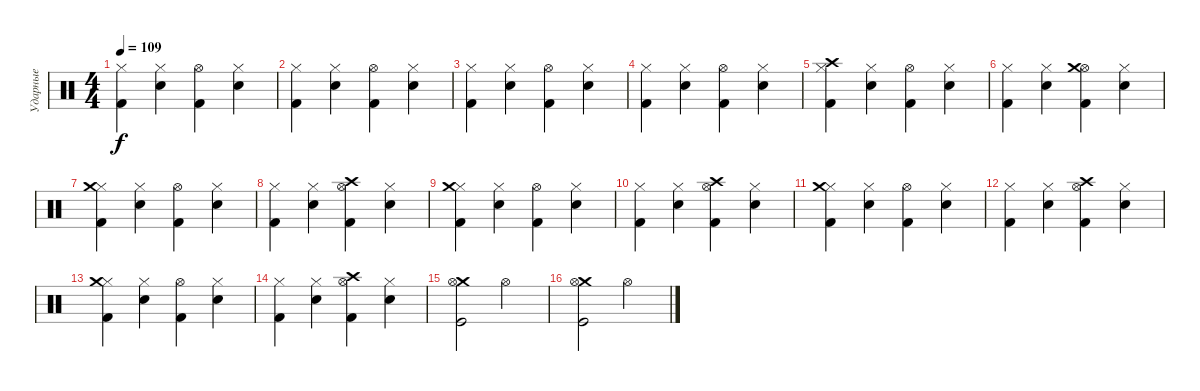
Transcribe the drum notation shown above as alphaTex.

\track ("Ударные" "Ударные") {instrument percussion}
\staff {score}
\articulation defaults
\ts (4 4)
\tempo 109
\clef neutral
\ks c
("Hi-Hat (closed)" "Kick (hit) 2").4{dy f} ("Hi-Hat (closed)" "Snare (hit) 2").4 ("Hi-Hat (open)" "Kick (hit) 2").4 ("Hi-Hat (closed)" "Snare (hit) 2").4 |
("Hi-Hat (closed)" "Kick (hit) 2").4 ("Hi-Hat (closed)" "Snare (hit) 2").4 ("Hi-Hat (open)" "Kick (hit) 2").4 ("Hi-Hat (closed)" "Snare (hit) 2").4 |
("Hi-Hat (closed)" "Kick (hit) 2").4 ("Hi-Hat (closed)" "Snare (hit) 2").4 ("Hi-Hat (open)" "Kick (hit) 2").4 ("Hi-Hat (closed)" "Snare (hit) 2").4 |
("Hi-Hat (closed)" "Kick (hit) 2").4 ("Hi-Hat (closed)" "Snare (hit) 2").4 ("Hi-Hat (open)" "Kick (hit) 2").4 ("Hi-Hat (closed)" "Snare (hit) 2").4 |
("Hi-Hat (closed)" "Kick (hit) 2" "Crash high (hit)").4 ("Hi-Hat (closed)" "Snare (hit) 2").4 ("Hi-Hat (open)" "Kick (hit) 2").4 ("Hi-Hat (closed)" "Snare (hit) 2").4 |
("Hi-Hat (closed)" "Kick (hit) 2").4 ("Hi-Hat (closed)" "Snare (hit) 2").4 ("Hi-Hat (open)" "Crash medium (hit)" "Kick (hit) 2").4 ("Hi-Hat (closed)" "Snare (hit) 2").4 |
("Hi-Hat (closed)" "Kick (hit) 2" "Crash medium (hit)").4 ("Hi-Hat (closed)" "Snare (hit) 2").4 ("Hi-Hat (open)" "Kick (hit) 2").4 ("Hi-Hat (closed)" "Snare (hit) 2").4 |
("Hi-Hat (closed)" "Kick (hit) 2").4 ("Hi-Hat (closed)" "Snare (hit) 2").4 ("Hi-Hat (open)" "Crash high (hit)" "Kick (hit) 2").4 ("Hi-Hat (closed)" "Snare (hit) 2").4 |
("Hi-Hat (closed)" "Kick (hit) 2" "Crash medium (hit)").4 ("Hi-Hat (closed)" "Snare (hit) 2").4 ("Hi-Hat (open)" "Kick (hit) 2").4 ("Hi-Hat (closed)" "Snare (hit) 2").4 |
("Hi-Hat (closed)" "Kick (hit) 2").4 ("Hi-Hat (closed)" "Snare (hit) 2").4 ("Hi-Hat (open)" "Crash high (hit)" "Kick (hit) 2").4 ("Hi-Hat (closed)" "Snare (hit) 2").4 |
("Hi-Hat (closed)" "Kick (hit) 2" "Crash medium (hit)").4 ("Hi-Hat (closed)" "Snare (hit) 2").4 ("Hi-Hat (open)" "Kick (hit) 2").4 ("Hi-Hat (closed)" "Snare (hit) 2").4 |
("Hi-Hat (closed)" "Kick (hit) 2").4 ("Hi-Hat (closed)" "Snare (hit) 2").4 ("Hi-Hat (open)" "Crash high (hit)" "Kick (hit) 2").4 ("Hi-Hat (closed)" "Snare (hit) 2").4 |
("Hi-Hat (closed)" "Kick (hit) 2" "Crash medium (hit)").4 ("Hi-Hat (closed)" "Snare (hit) 2").4 ("Hi-Hat (open)" "Kick (hit) 2").4 ("Hi-Hat (closed)" "Snare (hit) 2").4 |
("Hi-Hat (closed)" "Kick (hit) 2").4 ("Hi-Hat (closed)" "Snare (hit) 2").4 ("Hi-Hat (open)" "Crash high (hit)" "Kick (hit) 2").4 ("Hi-Hat (closed)" "Snare (hit) 2").4 |
("Crash medium (hit)" "Hi-Hat (open)" "Kick (hit)").2 "Hi-Hat (open)".2 |
("Crash medium (hit)" "Hi-Hat (open)" "Kick (hit)").2 "Hi-Hat (open)".2
